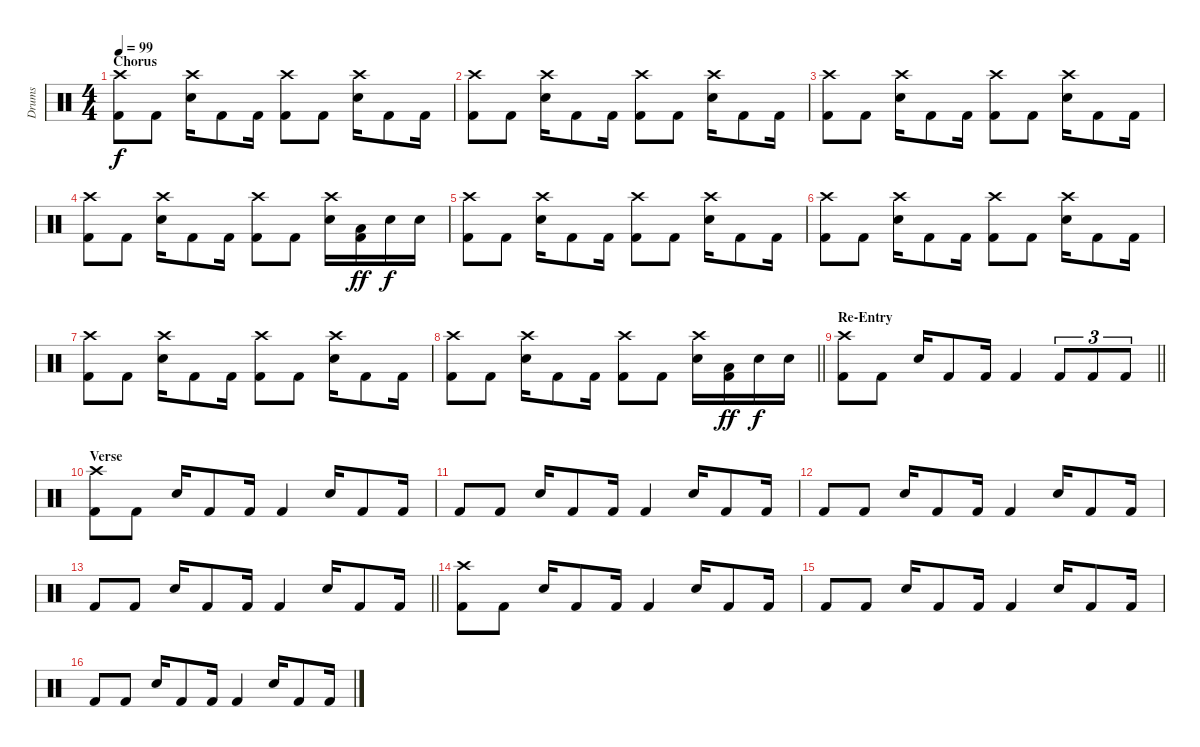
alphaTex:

\track ("Drums" "Drums") {instrument percussion}
\staff {score}
\articulation defaults
\ts (4 4)
\section ("" "Chorus")
\tempo 99
\clef neutral
\ks c
("Crash high (hit)" "Kick (hit) 2").8{dy f} "Kick (hit) 2".8 ("Crash high (hit)" "Electric Snare (hit)").16 "Kick (hit) 2".8 "Kick (hit) 2".16 ("Crash high (hit)" "Kick (hit) 2").8 "Kick (hit) 2".8 ("Crash high (hit)" "Electric Snare (hit)").16 "Kick (hit) 2".8 "Kick (hit) 2".16 |
("Crash high (hit)" "Kick (hit) 2").8 "Kick (hit) 2".8 ("Crash high (hit)" "Electric Snare (hit)").16 "Kick (hit) 2".8 "Kick (hit) 2".16 ("Crash high (hit)" "Kick (hit) 2").8 "Kick (hit) 2".8 ("Crash high (hit)" "Electric Snare (hit)").16 "Kick (hit) 2".8 "Kick (hit) 2".16 |
("Crash high (hit)" "Kick (hit) 2").8 "Kick (hit) 2".8 ("Crash high (hit)" "Electric Snare (hit)").16 "Kick (hit) 2".8 "Kick (hit) 2".16 ("Crash high (hit)" "Kick (hit) 2").8 "Kick (hit) 2".8 ("Crash high (hit)" "Electric Snare (hit)").16 "Kick (hit) 2".8 "Kick (hit) 2".16 |
("Crash high (hit)" "Kick (hit) 2").8 "Kick (hit) 2".8 ("Crash high (hit)" "Electric Snare (hit)").16 "Kick (hit) 2".8 "Kick (hit) 2".16 ("Crash high (hit)" "Kick (hit) 2").8 "Kick (hit) 2".8 ("Crash high (hit)" "Electric Snare (hit)").16 ("Low Floor Tom (hit)" "Kick (hit) 2").16{dy ff} "Electric Snare (hit)".16{dy f} "Electric Snare (hit)".16 |
("Crash high (hit)" "Kick (hit) 2").8 "Kick (hit) 2".8 ("Crash high (hit)" "Electric Snare (hit)").16 "Kick (hit) 2".8 "Kick (hit) 2".16 ("Crash high (hit)" "Kick (hit) 2").8 "Kick (hit) 2".8 ("Crash high (hit)" "Electric Snare (hit)").16 "Kick (hit) 2".8 "Kick (hit) 2".16 |
("Crash high (hit)" "Kick (hit) 2").8 "Kick (hit) 2".8 ("Crash high (hit)" "Electric Snare (hit)").16 "Kick (hit) 2".8 "Kick (hit) 2".16 ("Crash high (hit)" "Kick (hit) 2").8 "Kick (hit) 2".8 ("Crash high (hit)" "Electric Snare (hit)").16 "Kick (hit) 2".8 "Kick (hit) 2".16 |
("Crash high (hit)" "Kick (hit) 2").8 "Kick (hit) 2".8 ("Crash high (hit)" "Electric Snare (hit)").16 "Kick (hit) 2".8 "Kick (hit) 2".16 ("Crash high (hit)" "Kick (hit) 2").8 "Kick (hit) 2".8 ("Crash high (hit)" "Electric Snare (hit)").16 "Kick (hit) 2".8 "Kick (hit) 2".16 |
\barLineRight lightlight
("Crash high (hit)" "Kick (hit) 2").8 "Kick (hit) 2".8 ("Crash high (hit)" "Electric Snare (hit)").16 "Kick (hit) 2".8 "Kick (hit) 2".16 ("Crash high (hit)" "Kick (hit) 2").8 "Kick (hit) 2".8 ("Crash high (hit)" "Electric Snare (hit)").16 ("Low Floor Tom (hit)" "Kick (hit) 2").16{dy ff} "Electric Snare (hit)".16{dy f} "Electric Snare (hit)".16 |
\section ("" "Re-Entry")
\barLineRight lightlight
("Crash high (hit)" "Kick (hit) 2").8 "Kick (hit) 2".8 "Electric Snare (hit)".16 "Kick (hit) 2".8 "Kick (hit) 2".16 "Kick (hit) 2".4 "Kick (hit) 2".8{tu (3 2)} "Kick (hit) 2".8{tu (3 2)} "Kick (hit) 2".8{tu (3 2)} |
\section ("" "Verse")
("Crash high (hit)" "Kick (hit) 2").8 "Kick (hit) 2".8 "Electric Snare (hit)".16 "Kick (hit) 2".8 "Kick (hit) 2".16 "Kick (hit) 2".4 "Electric Snare (hit)".16 "Kick (hit) 2".8 "Kick (hit) 2".16 |
"Kick (hit) 2".8 "Kick (hit) 2".8 "Electric Snare (hit)".16 "Kick (hit) 2".8 "Kick (hit) 2".16 "Kick (hit) 2".4 "Electric Snare (hit)".16 "Kick (hit) 2".8 "Kick (hit) 2".16 |
"Kick (hit) 2".8 "Kick (hit) 2".8 "Electric Snare (hit)".16 "Kick (hit) 2".8 "Kick (hit) 2".16 "Kick (hit) 2".4 "Electric Snare (hit)".16 "Kick (hit) 2".8 "Kick (hit) 2".16 |
\barLineRight lightlight "Kick (hit) 2".8 "Kick (hit) 2".8 "Electric Snare (hit)".16 "Kick (hit) 2".8 "Kick (hit) 2".16 "Kick (hit) 2".4 "Electric Snare (hit)".16 "Kick (hit) 2".8 "Kick (hit) 2".16
|
("Crash high (hit)" "Kick (hit) 2").8 "Kick (hit) 2".8 "Electric Snare (hit)".16 "Kick (hit) 2".8 "Kick (hit) 2".16 "Kick (hit) 2".4 "Electric Snare (hit)".16 "Kick (hit) 2".8 "Kick (hit) 2".16 |
"Kick (hit) 2".8 "Kick (hit) 2".8 "Electric Snare (hit)".16 "Kick (hit) 2".8 "Kick (hit) 2".16 "Kick (hit) 2".4 "Electric Snare (hit)".16 "Kick (hit) 2".8 "Kick (hit) 2".16 |
"Kick (hit) 2".8 "Kick (hit) 2".8 "Electric Snare (hit)".16 "Kick (hit) 2".8 "Kick (hit) 2".16 "Kick (hit) 2".4 "Electric Snare (hit)".16 "Kick (hit) 2".8 "Kick (hit) 2".16
